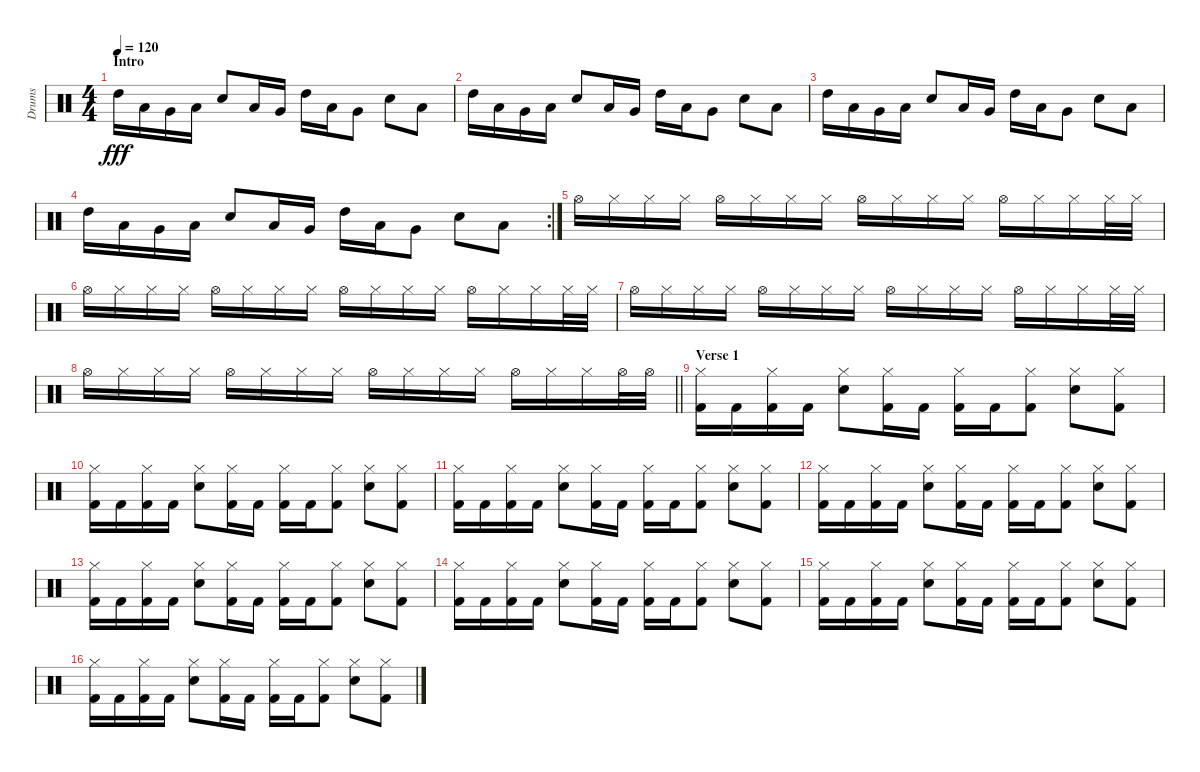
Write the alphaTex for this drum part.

\track ("Drums" "Drums") {instrument percussion}
\staff {score}
\articulation defaults
\ts (4 4)
\section ("" "Intro")
\tempo 120
\clef neutral
\ks c "High Tom (hit)".16{dy fff} "Low Tom (hit)".16 "Very Low Tom (hit)".16 "Low Floor Tom (hit)".16 "Electric Snare (hit)".8 "Low Tom (hit)".16 "Very Low Tom (hit)".16 "High Tom (hit)".16 "Low Tom (hit)".16 "Very Low Tom (hit)".8 "Electric Snare (hit)".8 "Low Floor Tom (hit)".8
|
"High Tom (hit)".16 "Low Tom (hit)".16 "Very Low Tom (hit)".16 "Low Floor Tom (hit)".16 "Electric Snare (hit)".8 "Low Tom (hit)".16 "Very Low Tom (hit)".16 "High Tom (hit)".16 "Low Tom (hit)".16 "Very Low Tom (hit)".8 "Electric Snare (hit)".8 "Low Floor Tom (hit)".8 |
"High Tom (hit)".16 "Low Tom (hit)".16 "Very Low Tom (hit)".16 "Low Floor Tom (hit)".16 "Electric Snare (hit)".8 "Low Tom (hit)".16 "Very Low Tom (hit)".16 "High Tom (hit)".16 "Low Tom (hit)".16 "Very Low Tom (hit)".8 "Electric Snare (hit)".8 "Low Floor Tom (hit)".8 |
\rc 2 "High Tom (hit)".16 "Low Tom (hit)".16 "Very Low Tom (hit)".16 "Low Floor Tom (hit)".16 "Electric Snare (hit)".8 "Low Tom (hit)".16 "Very Low Tom (hit)".16 "High Tom (hit)".16 "Low Tom (hit)".16 "Very Low Tom (hit)".8 "Electric Snare (hit)".8 "Low Floor Tom (hit)".8
|
"Hi-Hat (open)".16 "Hi-Hat (closed)".16 "Hi-Hat (closed)".16 "Hi-Hat (closed)".16 "Hi-Hat (open)".16 "Hi-Hat (closed)".16 "Hi-Hat (closed)".16 "Hi-Hat (closed)".16 "Hi-Hat (open)".16 "Hi-Hat (closed)".16 "Hi-Hat (closed)".16 "Hi-Hat (closed)".16 "Hi-Hat (open)".16 "Hi-Hat (closed)".16 "Hi-Hat (closed)".16 "Hi-Hat (closed)".32 "Hi-Hat (closed)".32 |
"Hi-Hat (open)".16 "Hi-Hat (closed)".16 "Hi-Hat (closed)".16 "Hi-Hat (closed)".16 "Hi-Hat (open)".16 "Hi-Hat (closed)".16 "Hi-Hat (closed)".16 "Hi-Hat (closed)".16 "Hi-Hat (open)".16 "Hi-Hat (closed)".16 "Hi-Hat (closed)".16 "Hi-Hat (closed)".16 "Hi-Hat (open)".16 "Hi-Hat (closed)".16 "Hi-Hat (closed)".16 "Hi-Hat (closed)".32 "Hi-Hat (closed)".32 |
"Hi-Hat (open)".16 "Hi-Hat (closed)".16 "Hi-Hat (closed)".16 "Hi-Hat (closed)".16 "Hi-Hat (open)".16 "Hi-Hat (closed)".16 "Hi-Hat (closed)".16 "Hi-Hat (closed)".16 "Hi-Hat (open)".16 "Hi-Hat (closed)".16 "Hi-Hat (closed)".16 "Hi-Hat (closed)".16 "Hi-Hat (open)".16 "Hi-Hat (closed)".16 "Hi-Hat (closed)".16 "Hi-Hat (closed)".32 "Hi-Hat (closed)".32 |
\barLineRight lightlight "Hi-Hat (open)".16 "Hi-Hat (closed)".16 "Hi-Hat (closed)".16 "Hi-Hat (closed)".16 "Hi-Hat (open)".16 "Hi-Hat (closed)".16 "Hi-Hat (closed)".16 "Hi-Hat (closed)".16 "Hi-Hat (open)".16 "Hi-Hat (closed)".16 "Hi-Hat (closed)".16 "Hi-Hat (closed)".16 "Hi-Hat (open)".16 "Hi-Hat (closed)".16 "Hi-Hat (closed)".16 "Hi-Hat (open)".32 "Hi-Hat (open)".32
|
\section ("" "Verse 1")
("Hi-Hat (closed)" "Kick (hit) 2").16 "Kick (hit) 2".16 ("Hi-Hat (closed)" "Kick (hit) 2").16 "Kick (hit) 2".16 ("Hi-Hat (closed)" "Electric Snare (hit)").8 ("Hi-Hat (closed)" "Kick (hit) 2").16 "Kick (hit) 2".16 ("Hi-Hat (closed)" "Kick (hit) 2").16 "Kick (hit) 2".16 ("Hi-Hat (closed)" "Kick (hit) 2").8 ("Hi-Hat (closed)" "Electric Snare (hit)").8 ("Hi-Hat (closed)" "Kick (hit) 2").8 |
("Hi-Hat (closed)" "Kick (hit) 2").16 "Kick (hit) 2".16 ("Hi-Hat (closed)" "Kick (hit) 2").16 "Kick (hit) 2".16 ("Hi-Hat (closed)" "Electric Snare (hit)").8 ("Hi-Hat (closed)" "Kick (hit) 2").16 "Kick (hit) 2".16 ("Hi-Hat (closed)" "Kick (hit) 2").16 "Kick (hit) 2".16 ("Hi-Hat (closed)" "Kick (hit) 2").8 ("Hi-Hat (closed)" "Electric Snare (hit)").8 ("Hi-Hat (closed)" "Kick (hit) 2").8 |
("Hi-Hat (closed)" "Kick (hit) 2").16 "Kick (hit) 2".16 ("Hi-Hat (closed)" "Kick (hit) 2").16 "Kick (hit) 2".16 ("Hi-Hat (closed)" "Electric Snare (hit)").8 ("Hi-Hat (closed)" "Kick (hit) 2").16 "Kick (hit) 2".16 ("Hi-Hat (closed)" "Kick (hit) 2").16 "Kick (hit) 2".16 ("Hi-Hat (closed)" "Kick (hit) 2").8 ("Hi-Hat (closed)" "Electric Snare (hit)").8 ("Hi-Hat (closed)" "Kick (hit) 2").8 |
("Hi-Hat (closed)" "Kick (hit) 2").16 "Kick (hit) 2".16 ("Hi-Hat (closed)" "Kick (hit) 2").16 "Kick (hit) 2".16 ("Hi-Hat (closed)" "Electric Snare (hit)").8 ("Hi-Hat (closed)" "Kick (hit) 2").16 "Kick (hit) 2".16 ("Hi-Hat (closed)" "Kick (hit) 2").16 "Kick (hit) 2".16 ("Hi-Hat (closed)" "Kick (hit) 2").8 ("Hi-Hat (closed)" "Electric Snare (hit)").8 ("Hi-Hat (closed)" "Kick (hit) 2").8 |
("Hi-Hat (closed)" "Kick (hit) 2").16 "Kick (hit) 2".16 ("Hi-Hat (closed)" "Kick (hit) 2").16 "Kick (hit) 2".16 ("Hi-Hat (closed)" "Electric Snare (hit)").8 ("Hi-Hat (closed)" "Kick (hit) 2").16 "Kick (hit) 2".16 ("Hi-Hat (closed)" "Kick (hit) 2").16 "Kick (hit) 2".16 ("Hi-Hat (closed)" "Kick (hit) 2").8 ("Hi-Hat (closed)" "Electric Snare (hit)").8 ("Hi-Hat (closed)" "Kick (hit) 2").8 |
("Hi-Hat (closed)" "Kick (hit) 2").16 "Kick (hit) 2".16 ("Hi-Hat (closed)" "Kick (hit) 2").16 "Kick (hit) 2".16 ("Hi-Hat (closed)" "Electric Snare (hit)").8 ("Hi-Hat (closed)" "Kick (hit) 2").16 "Kick (hit) 2".16 ("Hi-Hat (closed)" "Kick (hit) 2").16 "Kick (hit) 2".16 ("Hi-Hat (closed)" "Kick (hit) 2").8 ("Hi-Hat (closed)" "Electric Snare (hit)").8 ("Hi-Hat (closed)" "Kick (hit) 2").8 |
("Hi-Hat (closed)" "Kick (hit) 2").16 "Kick (hit) 2".16 ("Hi-Hat (closed)" "Kick (hit) 2").16 "Kick (hit) 2".16 ("Hi-Hat (closed)" "Electric Snare (hit)").8 ("Hi-Hat (closed)" "Kick (hit) 2").16 "Kick (hit) 2".16 ("Hi-Hat (closed)" "Kick (hit) 2").16 "Kick (hit) 2".16 ("Hi-Hat (closed)" "Kick (hit) 2").8 ("Hi-Hat (closed)" "Electric Snare (hit)").8 ("Hi-Hat (closed)" "Kick (hit) 2").8 |
("Hi-Hat (closed)" "Kick (hit) 2").16 "Kick (hit) 2".16 ("Hi-Hat (closed)" "Kick (hit) 2").16 "Kick (hit) 2".16 ("Hi-Hat (closed)" "Electric Snare (hit)").8 ("Hi-Hat (closed)" "Kick (hit) 2").16 "Kick (hit) 2".16 ("Hi-Hat (closed)" "Kick (hit) 2").16 "Kick (hit) 2".16 ("Hi-Hat (closed)" "Kick (hit) 2").8 ("Hi-Hat (closed)" "Electric Snare (hit)").8 ("Hi-Hat (closed)" "Kick (hit) 2").8
